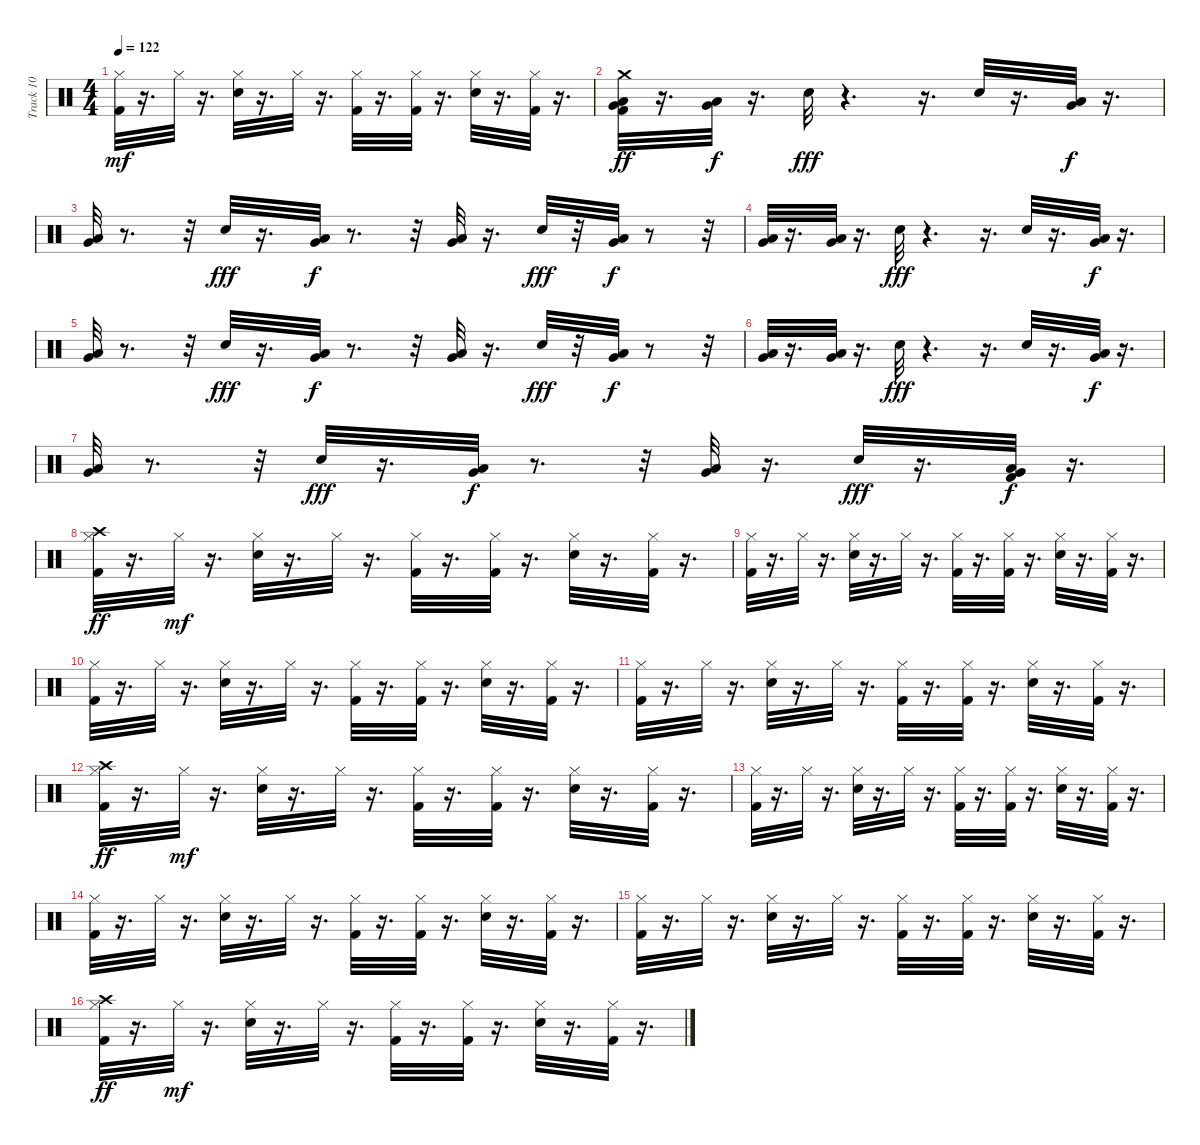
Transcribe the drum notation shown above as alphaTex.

\track ("Track 10" "Track 10") {instrument percussion}
\staff {score}
\articulation defaults
\ts (4 4)
\tempo 122
\clef neutral
\ks c
("Kick (hit) 2" "Hi-Hat (closed)").32{dy mf} r.16{d} "Hi-Hat (closed)".32 r.16{d} ("Electric Snare (hit)" "Hi-Hat (closed)").32 r.16{d} "Hi-Hat (closed)".32 r.16{d} ("Kick (hit) 2" "Hi-Hat (closed)").32 r.16{d} ("Kick (hit) 2" "Hi-Hat (closed)").32 r.16{d} ("Electric Snare (hit)" "Hi-Hat (closed)").32 r.16{d} ("Kick (hit) 2" "Hi-Hat (closed)").32 r.16{d} |
("Kick (hit) 2" "Low Floor Tom (hit)" "Very Low Tom (hit)" "Crash medium (hit)").32{dy ff} r.16{d} ("Low Floor Tom (hit)" "Very Low Tom (hit)").32{dy f} r.16{d} "Hand Clap (hit)".32{dy fff} r.4{d} r.16{d} "Hand Clap (hit)".32 r.16{d} ("Low Floor Tom (hit)" "Very Low Tom (hit)").32{dy f} r.16{d} |
("Low Floor Tom (hit)" "Very Low Tom (hit)").32 r.8{d} r.32 "Hand Clap (hit)".32{dy fff} r.16{d} ("Low Floor Tom (hit)" "Very Low Tom (hit)").32{dy f} r.8{d} r.32 ("Low Floor Tom (hit)" "Very Low Tom (hit)").32 r.16{d} "Hand Clap (hit)".32{dy fff} r.32 ("Low Floor Tom (hit)" "Very Low Tom (hit)").32{dy f} r.8 r.32 |
("Low Floor Tom (hit)" "Very Low Tom (hit)").32 r.16{d} ("Low Floor Tom (hit)" "Very Low Tom (hit)").32 r.16{d} "Hand Clap (hit)".32{dy fff} r.4{d} r.16{d} "Hand Clap (hit)".32 r.16{d} ("Low Floor Tom (hit)" "Very Low Tom (hit)").32{dy f} r.16{d} |
("Low Floor Tom (hit)" "Very Low Tom (hit)").32 r.8{d} r.32 "Hand Clap (hit)".32{dy fff} r.16{d} ("Low Floor Tom (hit)" "Very Low Tom (hit)").32{dy f} r.8{d} r.32 ("Low Floor Tom (hit)" "Very Low Tom (hit)").32 r.16{d} "Hand Clap (hit)".32{dy fff} r.32 ("Low Floor Tom (hit)" "Very Low Tom (hit)").32{dy f} r.8 r.32 |
("Low Floor Tom (hit)" "Very Low Tom (hit)").32 r.16{d} ("Low Floor Tom (hit)" "Very Low Tom (hit)").32 r.16{d} "Hand Clap (hit)".32{dy fff} r.4{d} r.16{d} "Hand Clap (hit)".32 r.16{d} ("Low Floor Tom (hit)" "Very Low Tom (hit)").32{dy f} r.16{d} |
("Low Floor Tom (hit)" "Very Low Tom (hit)").32 r.8{d} r.32 "Hand Clap (hit)".32{dy fff} r.16{d} ("Low Floor Tom (hit)" "Very Low Tom (hit)").32{dy f} r.8{d} r.32 ("Low Floor Tom (hit)" "Very Low Tom (hit)").32 r.16{d} "Hand Clap (hit)".32{dy fff} r.16{d} ("Kick (hit) 2" "Low Floor Tom (hit)" "Very Low Tom (hit)").32{dy f} r.16{d} |
("Kick (hit) 2" "Hi-Hat (closed)" "Crash high (hit)").32{dy ff} r.16{d} "Hi-Hat (closed)".32{dy mf} r.16{d} ("Electric Snare (hit)" "Hi-Hat (closed)").32 r.16{d} "Hi-Hat (closed)".32 r.16{d} ("Kick (hit) 2" "Hi-Hat (closed)").32 r.16{d} ("Kick (hit) 2" "Hi-Hat (closed)").32 r.16{d} ("Electric Snare (hit)" "Hi-Hat (closed)").32 r.16{d} ("Kick (hit) 2" "Hi-Hat (closed)").32 r.16{d} |
("Kick (hit) 2" "Hi-Hat (closed)").32 r.16{d} "Hi-Hat (closed)".32 r.16{d} ("Electric Snare (hit)" "Hi-Hat (closed)").32 r.16{d} "Hi-Hat (closed)".32 r.16{d} ("Kick (hit) 2" "Hi-Hat (closed)").32 r.16{d} ("Kick (hit) 2" "Hi-Hat (closed)").32 r.16{d} ("Electric Snare (hit)" "Hi-Hat (closed)").32 r.16{d} ("Kick (hit) 2" "Hi-Hat (closed)").32 r.16{d} |
("Kick (hit) 2" "Hi-Hat (closed)").32 r.16{d} "Hi-Hat (closed)".32 r.16{d} ("Electric Snare (hit)" "Hi-Hat (closed)").32 r.16{d} "Hi-Hat (closed)".32 r.16{d} ("Kick (hit) 2" "Hi-Hat (closed)").32 r.16{d} ("Kick (hit) 2" "Hi-Hat (closed)").32 r.16{d} ("Electric Snare (hit)" "Hi-Hat (closed)").32 r.16{d} ("Kick (hit) 2" "Hi-Hat (closed)").32 r.16{d} |
("Kick (hit) 2" "Hi-Hat (closed)").32 r.16{d} "Hi-Hat (closed)".32 r.16{d} ("Electric Snare (hit)" "Hi-Hat (closed)").32 r.16{d} "Hi-Hat (closed)".32 r.16{d} ("Kick (hit) 2" "Hi-Hat (closed)").32 r.16{d} ("Kick (hit) 2" "Hi-Hat (closed)").32 r.16{d} ("Electric Snare (hit)" "Hi-Hat (closed)").32 r.16{d} ("Kick (hit) 2" "Hi-Hat (closed)").32 r.16{d} |
("Kick (hit) 2" "Hi-Hat (closed)" "Crash high (hit)").32{dy ff} r.16{d} "Hi-Hat (closed)".32{dy mf} r.16{d} ("Electric Snare (hit)" "Hi-Hat (closed)").32 r.16{d} "Hi-Hat (closed)".32 r.16{d} ("Kick (hit) 2" "Hi-Hat (closed)").32 r.16{d} ("Kick (hit) 2" "Hi-Hat (closed)").32 r.16{d} ("Electric Snare (hit)" "Hi-Hat (closed)").32 r.16{d} ("Kick (hit) 2" "Hi-Hat (closed)").32 r.16{d} |
("Kick (hit) 2" "Hi-Hat (closed)").32 r.16{d} "Hi-Hat (closed)".32 r.16{d} ("Electric Snare (hit)" "Hi-Hat (closed)").32 r.16{d} "Hi-Hat (closed)".32 r.16{d} ("Kick (hit) 2" "Hi-Hat (closed)").32 r.16{d} ("Kick (hit) 2" "Hi-Hat (closed)").32 r.16{d} ("Electric Snare (hit)" "Hi-Hat (closed)").32 r.16{d} ("Kick (hit) 2" "Hi-Hat (closed)").32 r.16{d} |
("Kick (hit) 2" "Hi-Hat (closed)").32 r.16{d} "Hi-Hat (closed)".32 r.16{d} ("Electric Snare (hit)" "Hi-Hat (closed)").32 r.16{d} "Hi-Hat (closed)".32 r.16{d} ("Kick (hit) 2" "Hi-Hat (closed)").32 r.16{d} ("Kick (hit) 2" "Hi-Hat (closed)").32 r.16{d} ("Electric Snare (hit)" "Hi-Hat (closed)").32 r.16{d} ("Kick (hit) 2" "Hi-Hat (closed)").32 r.16{d} |
("Kick (hit) 2" "Hi-Hat (closed)").32 r.16{d} "Hi-Hat (closed)".32 r.16{d} ("Electric Snare (hit)" "Hi-Hat (closed)").32 r.16{d} "Hi-Hat (closed)".32 r.16{d} ("Kick (hit) 2" "Hi-Hat (closed)").32 r.16{d} ("Kick (hit) 2" "Hi-Hat (closed)").32 r.16{d} ("Electric Snare (hit)" "Hi-Hat (closed)").32 r.16{d} ("Kick (hit) 2" "Hi-Hat (closed)").32 r.16{d} |
("Kick (hit) 2" "Hi-Hat (closed)" "Crash high (hit)").32{dy ff} r.16{d} "Hi-Hat (closed)".32{dy mf} r.16{d} ("Electric Snare (hit)" "Hi-Hat (closed)").32 r.16{d} "Hi-Hat (closed)".32 r.16{d} ("Kick (hit) 2" "Hi-Hat (closed)").32 r.16{d} ("Kick (hit) 2" "Hi-Hat (closed)").32 r.16{d} ("Electric Snare (hit)" "Hi-Hat (closed)").32 r.16{d} ("Kick (hit) 2" "Hi-Hat (closed)").32 r.16{d}
